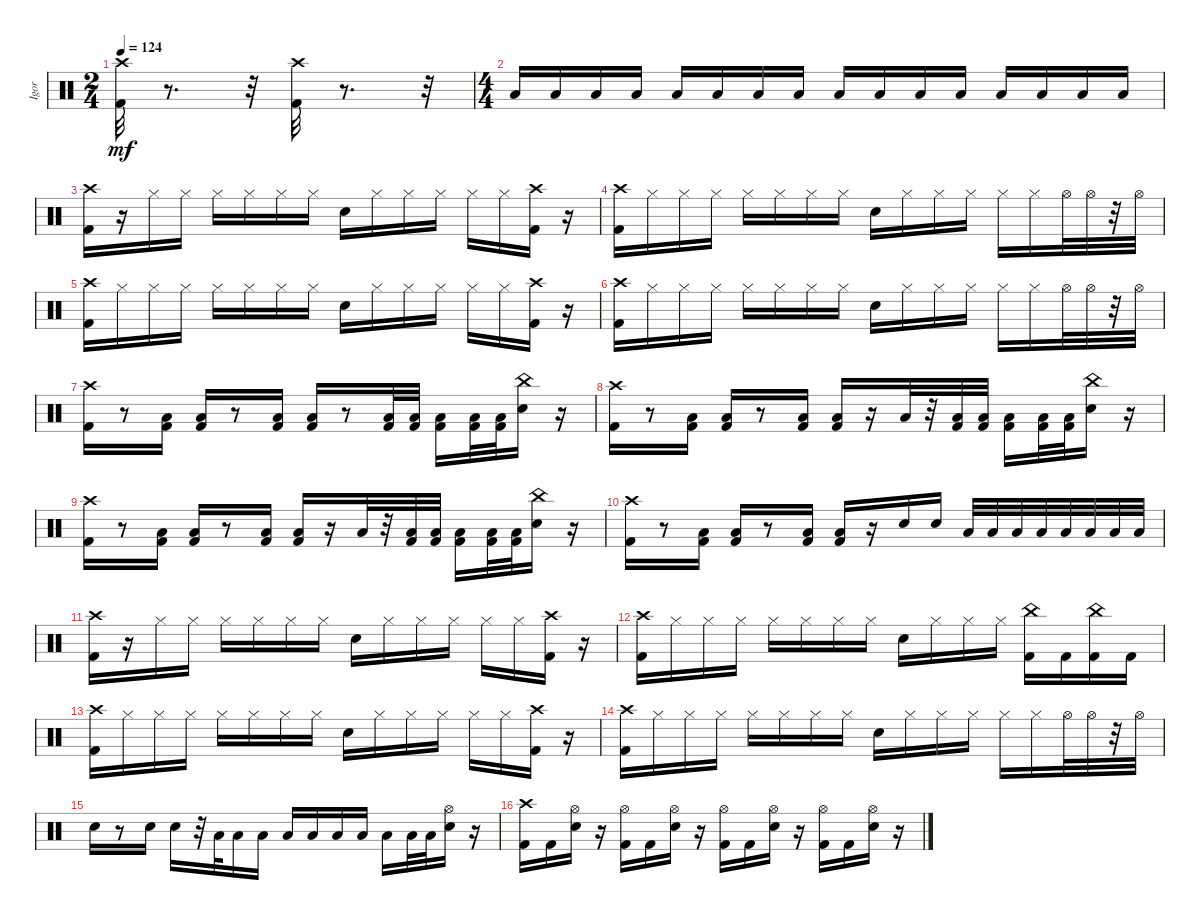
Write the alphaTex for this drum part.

\track ("Igor" "Igor") {instrument percussion}
\staff {score}
\articulation defaults
\ts (2 4)
\tempo 124
\clef neutral
\ks c
("Kick (hit) 2" "Crash high (hit)").32{dy mf} r.8{d} r.32 ("Kick (hit) 2" "Crash high (hit)").32 r.8{d} r.32 |
\ts (4 4)
"Low Tom (hit)".16 "Low Tom (hit)".16 "Low Tom (hit)".16 "Low Tom (hit)".16 "Low Tom (hit)".16 "Low Tom (hit)".16 "Low Tom (hit)".16 "Low Tom (hit)".16 "Low Tom (hit)".16 "Low Tom (hit)".16 "Low Tom (hit)".16 "Low Tom (hit)".16 "Low Tom (hit)".16 "Low Tom (hit)".16 "Low Tom (hit)".16 "Low Tom (hit)".16 |
("Kick (hit) 2" "Crash high (hit)").16 r.16 "Hi-Hat (closed)".16 "Hi-Hat (closed)".16 "Hi-Hat (closed)".16 "Hi-Hat (closed)".16 "Hi-Hat (closed)".16 "Hi-Hat (closed)".16 "Snare (hit) 2".16 "Hi-Hat (closed)".16 "Hi-Hat (closed)".16 "Hi-Hat (closed)".16 "Hi-Hat (closed)".16 "Hi-Hat (closed)".16 ("Kick (hit) 2" "Crash high (hit)").16 r.16 |
("Crash high (hit)" "Kick (hit) 2").16 "Hi-Hat (closed)".16 "Hi-Hat (closed)".16 "Hi-Hat (closed)".16 "Hi-Hat (closed)".16 "Hi-Hat (closed)".16 "Hi-Hat (closed)".16 "Hi-Hat (closed)".16 "Snare (hit) 2".16 "Hi-Hat (closed)".16 "Hi-Hat (closed)".16 "Hi-Hat (closed)".16 "Hi-Hat (closed)".16 "Hi-Hat (closed)".16 "Hi-Hat (open)".32 "Hi-Hat (open)".32 r.32 "Hi-Hat (open)".32 |
("Kick (hit) 2" "Crash high (hit)").16 "Hi-Hat (closed)".16 "Hi-Hat (closed)".16 "Hi-Hat (closed)".16 "Hi-Hat (closed)".16 "Hi-Hat (closed)".16 "Hi-Hat (closed)".16 "Hi-Hat (closed)".16 "Snare (hit) 2".16 "Hi-Hat (closed)".16 "Hi-Hat (closed)".16 "Hi-Hat (closed)".16 "Hi-Hat (closed)".16 "Hi-Hat (closed)".16 ("Kick (hit) 2" "Crash high (hit)").16 r.16 |
("Crash high (hit)" "Kick (hit) 2").16 "Hi-Hat (closed)".16 "Hi-Hat (closed)".16 "Hi-Hat (closed)".16 "Hi-Hat (closed)".16 "Hi-Hat (closed)".16 "Hi-Hat (closed)".16 "Hi-Hat (closed)".16 "Snare (hit) 2".16 "Hi-Hat (closed)".16 "Hi-Hat (closed)".16 "Hi-Hat (closed)".16 "Hi-Hat (closed)".16 "Hi-Hat (closed)".16 "Hi-Hat (open)".32 "Hi-Hat (open)".32 r.32 "Hi-Hat (open)".32 |
("Crash high (hit)" "Kick (hit) 2").16 r.8 ("Kick (hit) 2" "Low Tom (hit)").16 ("Kick (hit) 2" "Low Tom (hit)").16 r.8 ("Low Tom (hit)" "Kick (hit) 2").16 ("Low Tom (hit)" "Kick (hit) 2").16 r.8 ("Low Tom (hit)" "Kick (hit) 2").32 ("Low Tom (hit)" "Kick (hit) 2").32 ("Low Tom (hit)" "Kick (hit) 2").16 ("Kick (hit) 2" "Low Tom (hit)").32 ("Kick (hit) 2" "Low Tom (hit)").32 ("Snare (hit) 2" "China (hit)").16 r.16 |
("Crash high (hit)" "Kick (hit) 2").16 r.8 ("Kick (hit) 2" "Low Tom (hit)").16 ("Kick (hit) 2" "Low Tom (hit)").16 r.8 ("Low Tom (hit)" "Kick (hit) 2").16 ("Low Tom (hit)" "Kick (hit) 2").16 r.16 "Low Tom (hit)".32 r.32 ("Low Tom (hit)" "Kick (hit) 2").32 ("Low Tom (hit)" "Kick (hit) 2").32 ("Low Tom (hit)" "Kick (hit) 2").16 ("Kick (hit) 2" "Low Tom (hit)").32 ("Kick (hit) 2" "Low Tom (hit)").32 ("Snare (hit) 2" "China (hit)").16 r.16 |
("Crash high (hit)" "Kick (hit) 2").16 r.8 ("Kick (hit) 2" "Low Tom (hit)").16 ("Kick (hit) 2" "Low Tom (hit)").16 r.8 ("Low Tom (hit)" "Kick (hit) 2").16 ("Low Tom (hit)" "Kick (hit) 2").16 r.16 "Low Tom (hit)".32 r.32 ("Low Tom (hit)" "Kick (hit) 2").32 ("Low Tom (hit)" "Kick (hit) 2").32 ("Low Tom (hit)" "Kick (hit) 2").16 ("Kick (hit) 2" "Low Tom (hit)").32 ("Kick (hit) 2" "Low Tom (hit)").32 ("Snare (hit) 2" "China (hit)").16 r.16 |
("Crash high (hit)" "Kick (hit) 2").16 r.8 ("Kick (hit) 2" "Low Tom (hit)").16 ("Kick (hit) 2" "Low Tom (hit)").16 r.8 ("Low Tom (hit)" "Kick (hit) 2").16 ("Low Tom (hit)" "Kick (hit) 2").16 r.16 "Snare (hit) 2".16 "Snare (hit) 2".16 "Low Tom (hit)".32 "Low Tom (hit)".32 "Low Tom (hit)".32 "Low Tom (hit)".32 "Low Floor Tom (hit)".32 "Low Floor Tom (hit)".32 "Low Floor Tom (hit)".32 "Low Floor Tom (hit)".32 |
("Kick (hit) 2" "Crash high (hit)").16 r.16 "Hi-Hat (closed)".16 "Hi-Hat (closed)".16 "Hi-Hat (closed)".16 "Hi-Hat (closed)".16 "Hi-Hat (closed)".16 "Hi-Hat (closed)".16 "Snare (hit) 2".16 "Hi-Hat (closed)".16 "Hi-Hat (closed)".16 "Hi-Hat (closed)".16 "Hi-Hat (closed)".16 "Hi-Hat (closed)".16 ("Kick (hit) 2" "Crash high (hit)").16 r.16 |
("Crash high (hit)" "Kick (hit) 2").16 "Hi-Hat (closed)".16 "Hi-Hat (closed)".16 "Hi-Hat (closed)".16 "Hi-Hat (closed)".16 "Hi-Hat (closed)".16 "Hi-Hat (closed)".16 "Hi-Hat (closed)".16 "Snare (hit) 2".16 "Hi-Hat (closed)".16 "Hi-Hat (closed)".16 "Hi-Hat (closed)".16 ("Kick (hit) 2" "China (hit)").16 "Kick (hit) 2".16 ("Kick (hit) 2" "China (hit)").16 "Kick (hit) 2".16 |
("Kick (hit) 2" "Crash high (hit)").16 "Hi-Hat (closed)".16 "Hi-Hat (closed)".16 "Hi-Hat (closed)".16 "Hi-Hat (closed)".16 "Hi-Hat (closed)".16 "Hi-Hat (closed)".16 "Hi-Hat (closed)".16 "Snare (hit) 2".16 "Hi-Hat (closed)".16 "Hi-Hat (closed)".16 "Hi-Hat (closed)".16 "Hi-Hat (closed)".16 "Hi-Hat (closed)".16 ("Kick (hit) 2" "Crash high (hit)").16 r.16 |
("Crash high (hit)" "Kick (hit) 2").16 "Hi-Hat (closed)".16 "Hi-Hat (closed)".16 "Hi-Hat (closed)".16 "Hi-Hat (closed)".16 "Hi-Hat (closed)".16 "Hi-Hat (closed)".16 "Hi-Hat (closed)".16 "Snare (hit) 2".16 "Hi-Hat (closed)".16 "Hi-Hat (closed)".16 "Hi-Hat (closed)".16 "Hi-Hat (closed)".16 "Hi-Hat (closed)".16 "Hi-Hat (open)".32 "Hi-Hat (open)".32 r.32 "Hi-Hat (open)".32 |
"Snare (hit) 2".16 r.8 "Snare (hit) 2".16 "Snare (hit) 2".16 r.32 "Low Tom (hit)".32 "Low Tom (hit)".16 "Low Tom (hit)".16 "Low Tom (hit)".16 "Low Tom (hit)".16 "Low Tom (hit)".16 "Low Floor Tom (hit)".16 "Low Floor Tom (hit)".16 "Low Floor Tom (hit)".32 "Low Floor Tom (hit)".32 ("Snare (hit) 2" "Hi-Hat (open)").16 r.16 |
("Kick (hit) 2" "Crash high (hit)").16 "Kick (hit) 2".16 ("Snare (hit) 2" "Hi-Hat (open)").16 r.16 ("Hi-Hat (open)" "Kick (hit) 2").16 "Kick (hit) 2".16 ("Snare (hit) 2" "Hi-Hat (open)").16 r.16 ("Kick (hit) 2" "Hi-Hat (open)").16 "Kick (hit) 2".16 ("Snare (hit) 2" "Hi-Hat (open)").16 r.16 ("Hi-Hat (open)" "Kick (hit) 2").16 "Kick (hit) 2".16 ("Snare (hit) 2" "Hi-Hat (open)").16 r.16
